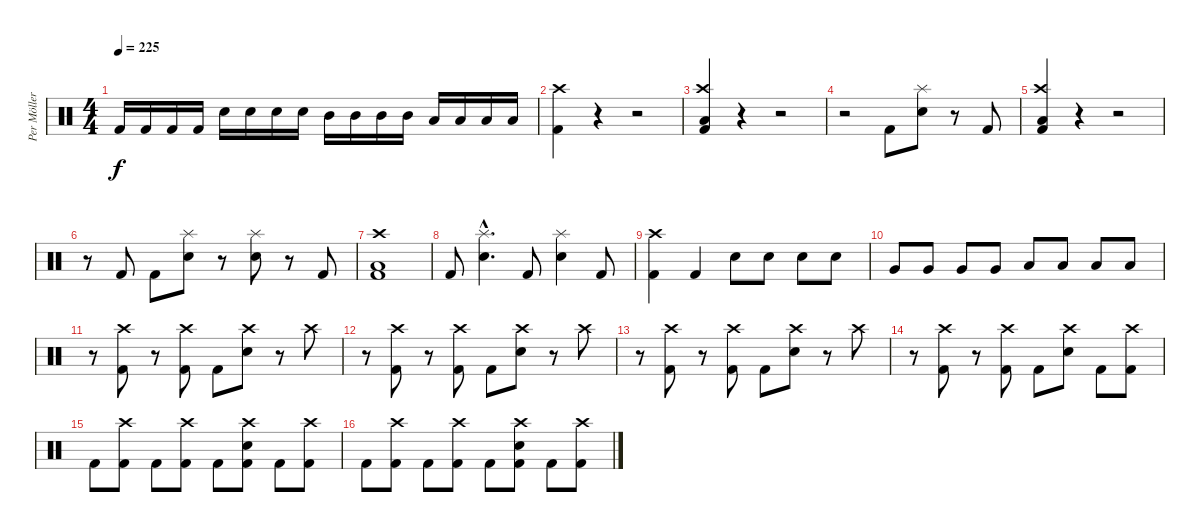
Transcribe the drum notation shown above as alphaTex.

\track ("Per Möller Jensen" "Per Möller") {instrument percussion}
\staff {score}
\articulation defaults
\ts (4 4)
\tempo 225
\clef neutral
\ks c "Kick (hit) 2".16{dy f} "Kick (hit) 2".16 "Kick (hit) 2".16 "Kick (hit) 2".16 "Snare (hit) 2".16 "Snare (hit) 2".16 "Snare (hit) 2".16 "Snare (hit) 2".16 "Mid Tom (hit)".16 "Mid Tom (hit)".16 "Mid Tom (hit)".16 "Mid Tom (hit)".16 "Low Tom (hit)".16 "Low Tom (hit)".16 "Low Tom (hit)".16 "Low Tom (hit)".16
|
("Crash high (hit)" "Kick (hit) 2").4 r.4 r.2 |
("Crash high (hit)" "Low Floor Tom (hit)" "Kick (hit) 2").4 r.4 r.2 |
r.2 "Kick (hit) 2".8 ("Splash (hit)" "Snare (hit) 2").8 r.8 "Kick (hit) 2".8 |
("Crash high (hit)" "Low Floor Tom (hit)" "Kick (hit) 2").4 r.4 r.2 |
r.8 "Kick (hit) 2".8 "Kick (hit) 2".8 ("Splash (hit)" "Snare (hit) 2").8 r.8 ("Splash (hit)" "Snare (hit) 2").8 r.8 "Kick (hit) 2".8 |
("Crash high (hit)" "Low Floor Tom (hit)" "Kick (hit) 2").1 |
"Kick (hit) 2".8 ("Splash (hit)"{hac} "Snare (hit) 2"{hac}).4{d} "Kick (hit) 2".8 ("Splash (hit)" "Snare (hit) 2").4 "Kick (hit) 2".8 |
("Crash high (hit)" "Kick (hit) 2").4 "Kick (hit) 2".4 "Snare (hit) 2".8 "Snare (hit) 2".8 "Snare (hit) 2".8 "Snare (hit) 2".8 |
"Very Low Tom (hit)".8 "Very Low Tom (hit)".8 "Very Low Tom (hit)".8 "Very Low Tom (hit)".8 "Low Floor Tom (hit)".8 "Low Floor Tom (hit)".8 "Low Floor Tom (hit)".8 "Low Floor Tom (hit)".8 |
r.8 ("Crash high (hit)" "Kick (hit) 2").8 r.8 ("Crash high (hit)" "Kick (hit) 2").8 "Kick (hit) 2".8 ("Crash high (hit)" "Snare (hit) 2").8 r.8 "Crash high (hit)".8 |
r.8 ("Crash high (hit)" "Kick (hit) 2").8 r.8 ("Crash high (hit)" "Kick (hit) 2").8 "Kick (hit) 2".8 ("Crash high (hit)" "Snare (hit) 2").8 r.8 "Crash high (hit)".8 |
r.8 ("Crash high (hit)" "Kick (hit) 2").8 r.8 ("Crash high (hit)" "Kick (hit) 2").8 "Kick (hit) 2".8 ("Crash high (hit)" "Snare (hit) 2").8 r.8 "Crash high (hit)".8 |
r.8 ("Crash high (hit)" "Kick (hit) 2").8 r.8 ("Crash high (hit)" "Kick (hit) 2").8 "Kick (hit) 2".8 ("Crash high (hit)" "Snare (hit) 2").8 "Kick (hit) 2".8 ("Crash high (hit)" "Kick (hit) 2").8 |
"Kick (hit) 2".8 ("Crash high (hit)" "Kick (hit) 2").8 "Kick (hit) 2".8 ("Crash high (hit)" "Kick (hit) 2").8 "Kick (hit) 2".8 ("Crash high (hit)" "Snare (hit) 2" "Kick (hit) 2").8 "Kick (hit) 2".8 ("Crash high (hit)" "Kick (hit) 2").8 |
"Kick (hit) 2".8 ("Crash high (hit)" "Kick (hit) 2").8 "Kick (hit) 2".8 ("Crash high (hit)" "Kick (hit) 2").8 "Kick (hit) 2".8 ("Crash high (hit)" "Snare (hit) 2" "Kick (hit) 2").8 "Kick (hit) 2".8 ("Crash high (hit)" "Kick (hit) 2").8
